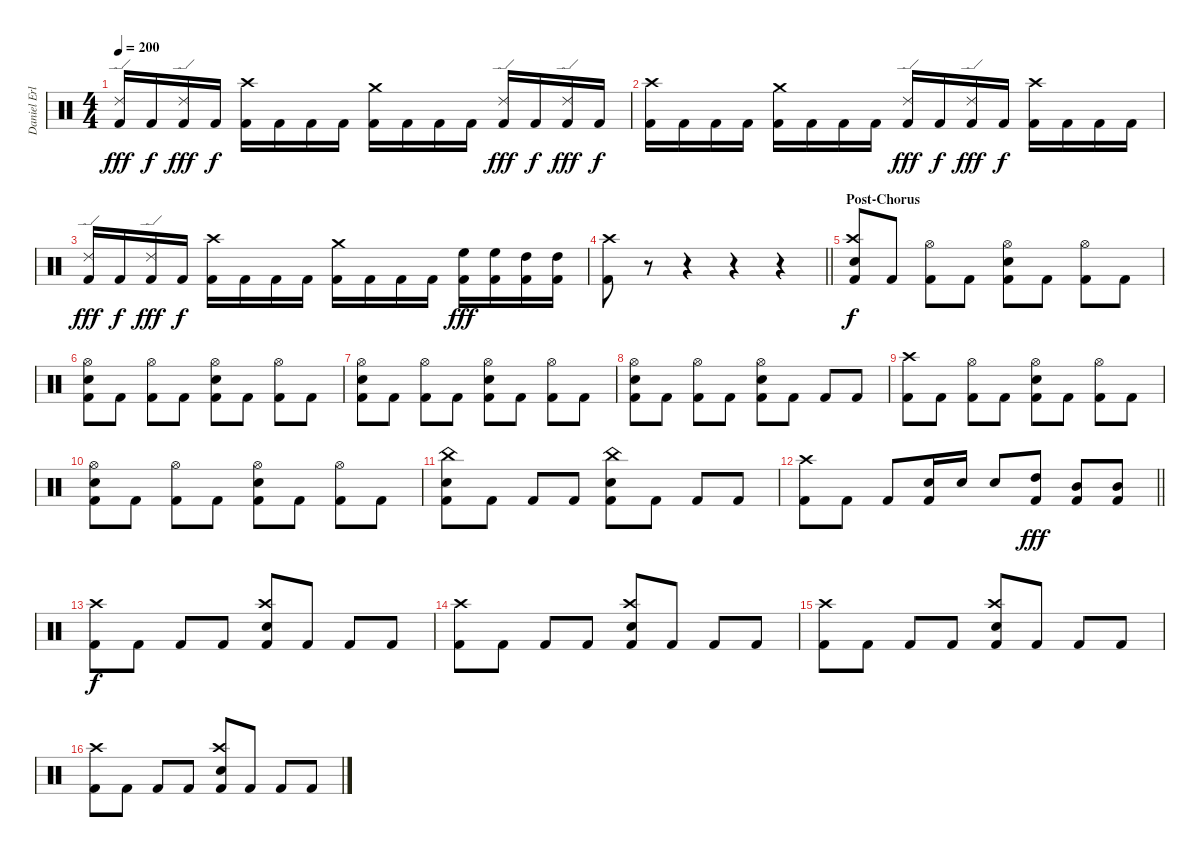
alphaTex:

\track ("Daniel Erlandsson" "Daniel Erl") {instrument percussion}
\staff {score}
\articulation defaults
\ts (4 4)
\tempo 200
\clef neutral
\ks c
("Kick (hit) 2" "Ride (edge) 2").16{dy fff} "Kick (hit) 2".16{dy f} ("Kick (hit) 2" "Ride (edge) 2").16{dy fff} "Kick (hit) 2".16{dy f} ("Kick (hit) 2" "Crash high (hit)").16 "Kick (hit) 2".16 "Kick (hit) 2".16 "Kick (hit) 2".16 ("Kick (hit) 2" "Crash medium (hit)").16 "Kick (hit) 2".16 "Kick (hit) 2".16 "Kick (hit) 2".16 ("Kick (hit) 2" "Ride (edge) 2").16{dy fff} "Kick (hit) 2".16{dy f} ("Kick (hit) 2" "Ride (edge) 2").16{dy fff} "Kick (hit) 2".16{dy f} |
("Kick (hit) 2" "Crash high (hit)").16 "Kick (hit) 2".16 "Kick (hit) 2".16 "Kick (hit) 2".16 ("Kick (hit) 2" "Crash medium (hit)").16 "Kick (hit) 2".16 "Kick (hit) 2".16 "Kick (hit) 2".16 ("Kick (hit) 2" "Ride (edge) 2").16{dy fff} "Kick (hit) 2".16{dy f} ("Kick (hit) 2" "Ride (edge) 2").16{dy fff} "Kick (hit) 2".16{dy f} ("Kick (hit) 2" "Crash high (hit)").16 "Kick (hit) 2".16 "Kick (hit) 2".16 "Kick (hit) 2".16 |
("Kick (hit) 2" "Ride (edge) 2").16{dy fff} "Kick (hit) 2".16{dy f} ("Kick (hit) 2" "Ride (edge) 2").16{dy fff} "Kick (hit) 2".16{dy f} ("Kick (hit) 2" "Crash high (hit)").16 "Kick (hit) 2".16 "Kick (hit) 2".16 "Kick (hit) 2".16 ("Kick (hit) 2" "Crash medium (hit)").16 "Kick (hit) 2".16 "Kick (hit) 2".16 "Kick (hit) 2".16 ("Kick (hit) 2" "High Floor Tom (hit)").16{dy fff} ("Kick (hit) 2" "High Floor Tom (hit)").16 ("Kick (hit) 2" "High Tom (hit)").16 ("Kick (hit) 2" "High Tom (hit)").16 |
\barLineRight lightlight
("Kick (hit) 2" "Crash high (hit)").8 r.8 r.4 r.4 r.4 |
\section ("" "Post-Chorus")
("Kick (hit) 2" "Snare (hit) 2" "Crash high (hit)").8{dy f} "Kick (hit) 2".8 ("Kick (hit) 2" "Hi-Hat (open)").8 "Kick (hit) 2".8 ("Kick (hit) 2" "Snare (hit) 2" "Hi-Hat (open)").8 "Kick (hit) 2".8 ("Kick (hit) 2" "Hi-Hat (open)").8 "Kick (hit) 2".8 |
("Kick (hit) 2" "Snare (hit) 2" "Hi-Hat (open)").8 "Kick (hit) 2".8 ("Kick (hit) 2" "Hi-Hat (open)").8 "Kick (hit) 2".8 ("Kick (hit) 2" "Snare (hit) 2" "Hi-Hat (open)").8 "Kick (hit) 2".8 ("Kick (hit) 2" "Hi-Hat (open)").8 "Kick (hit) 2".8 |
("Kick (hit) 2" "Snare (hit) 2" "Hi-Hat (open)").8 "Kick (hit) 2".8 ("Kick (hit) 2" "Hi-Hat (open)").8 "Kick (hit) 2".8 ("Kick (hit) 2" "Snare (hit) 2" "Hi-Hat (open)").8 "Kick (hit) 2".8 ("Kick (hit) 2" "Hi-Hat (open)").8 "Kick (hit) 2".8 |
("Kick (hit) 2" "Snare (hit) 2" "Hi-Hat (open)").8 "Kick (hit) 2".8 ("Kick (hit) 2" "Hi-Hat (open)").8 "Kick (hit) 2".8 ("Kick (hit) 2" "Snare (hit) 2" "Hi-Hat (open)").8 "Kick (hit) 2".8 "Kick (hit) 2".8 "Kick (hit) 2".8 |
("Kick (hit) 2" "Crash high (hit)").8 "Kick (hit) 2".8 ("Kick (hit) 2" "Hi-Hat (open)").8 "Kick (hit) 2".8 ("Kick (hit) 2" "Snare (hit) 2" "Hi-Hat (open)").8 "Kick (hit) 2".8 ("Kick (hit) 2" "Hi-Hat (open)").8 "Kick (hit) 2".8 |
("Kick (hit) 2" "Snare (hit) 2" "Hi-Hat (open)").8 "Kick (hit) 2".8 ("Kick (hit) 2" "Hi-Hat (open)").8 "Kick (hit) 2".8 ("Kick (hit) 2" "Snare (hit) 2" "Hi-Hat (open)").8 "Kick (hit) 2".8 ("Kick (hit) 2" "Hi-Hat (open)").8 "Kick (hit) 2".8 |
("Kick (hit) 2" "Snare (hit) 2" "China (hit)").8 "Kick (hit) 2".8 "Kick (hit) 2".8 "Kick (hit) 2".8 ("Kick (hit) 2" "Snare (hit) 2" "China (hit)").8 "Kick (hit) 2".8 "Kick (hit) 2".8 "Kick (hit) 2".8 |
\barLineRight lightlight
("Kick (hit) 2" "Crash high (hit)").8 "Kick (hit) 2".8 "Kick (hit) 2".8 ("Kick (hit) 2" "Snare (hit) 2").16 "Snare (hit) 2".16 "Snare (hit) 2".8 ("Kick (hit) 2" "High Tom (hit)").8{dy fff} ("Kick (hit) 2" "Mid Tom (hit)").8 ("Kick (hit) 2" "Mid Tom (hit)").8 |
("Kick (hit) 2" "Crash high (hit)").8{dy f} "Kick (hit) 2".8 "Kick (hit) 2".8 "Kick (hit) 2".8 ("Kick (hit) 2" "Snare (hit) 2" "Crash high (hit)").8 "Kick (hit) 2".8 "Kick (hit) 2".8 "Kick (hit) 2".8 |
("Kick (hit) 2" "Crash high (hit)").8 "Kick (hit) 2".8 "Kick (hit) 2".8 "Kick (hit) 2".8 ("Kick (hit) 2" "Snare (hit) 2" "Crash high (hit)").8 "Kick (hit) 2".8 "Kick (hit) 2".8 "Kick (hit) 2".8 |
("Kick (hit) 2" "Crash high (hit)").8 "Kick (hit) 2".8 "Kick (hit) 2".8 "Kick (hit) 2".8 ("Kick (hit) 2" "Snare (hit) 2" "Crash high (hit)").8 "Kick (hit) 2".8 "Kick (hit) 2".8 "Kick (hit) 2".8 |
("Kick (hit) 2" "Crash high (hit)").8 "Kick (hit) 2".8 "Kick (hit) 2".8 "Kick (hit) 2".8 ("Kick (hit) 2" "Snare (hit) 2" "Crash high (hit)").8 "Kick (hit) 2".8 "Kick (hit) 2".8 "Kick (hit) 2".8
